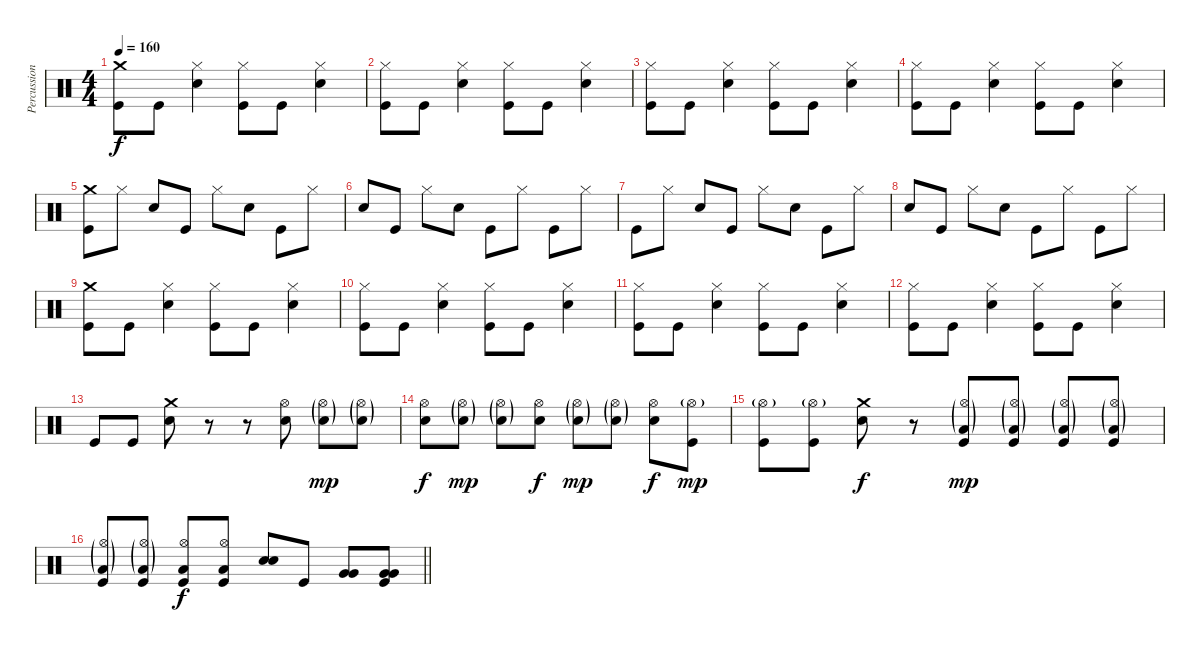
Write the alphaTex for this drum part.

\track ("Percussion" "Percussion") {instrument percussion}
\staff {score}
\articulation defaults
\ts (4 4)
\tempo 160
\clef neutral
\ks c
("Crash medium (hit)" "Kick (hit)").8{dy f} "Kick (hit)".8 ("Hi-Hat (closed)" "Snare (hit) 2").4 ("Hi-Hat (closed)" "Kick (hit)").8 "Kick (hit)".8 ("Hi-Hat (closed)" "Snare (hit) 2").4 |
("Hi-Hat (closed)" "Kick (hit)").8 "Kick (hit)".8 ("Hi-Hat (closed)" "Snare (hit) 2").4 ("Hi-Hat (closed)" "Kick (hit)").8 "Kick (hit)".8 ("Hi-Hat (closed)" "Snare (hit) 2").4 |
("Hi-Hat (closed)" "Kick (hit)").8 "Kick (hit)".8 ("Hi-Hat (closed)" "Snare (hit) 2").4 ("Hi-Hat (closed)" "Kick (hit)").8 "Kick (hit)".8 ("Hi-Hat (closed)" "Snare (hit) 2").4 |
("Hi-Hat (closed)" "Kick (hit)").8 "Kick (hit)".8 ("Hi-Hat (closed)" "Snare (hit) 2").4 ("Hi-Hat (closed)" "Kick (hit)").8 "Kick (hit)".8 ("Hi-Hat (closed)" "Snare (hit) 2").4 |
("Crash medium (hit)" "Kick (hit)").8 "Hi-Hat (closed)".8 "Snare (hit) 2".8 "Kick (hit)".8 "Hi-Hat (closed)".8 "Snare (hit) 2".8 "Kick (hit)".8 "Hi-Hat (closed)".8 |
"Snare (hit) 2".8 "Kick (hit)".8 "Hi-Hat (closed)".8 "Snare (hit) 2".8 "Kick (hit)".8 "Hi-Hat (closed)".8 "Kick (hit)".8 "Hi-Hat (closed)".8 |
"Kick (hit)".8 "Hi-Hat (closed)".8 "Snare (hit) 2".8 "Kick (hit)".8 "Hi-Hat (closed)".8 "Snare (hit) 2".8 "Kick (hit)".8 "Hi-Hat (closed)".8 |
"Snare (hit) 2".8 "Kick (hit)".8 "Hi-Hat (closed)".8 "Snare (hit) 2".8 "Kick (hit)".8 "Hi-Hat (closed)".8 "Kick (hit)".8 "Hi-Hat (closed)".8 |
("Crash medium (hit)" "Kick (hit)").8 "Kick (hit)".8 ("Hi-Hat (closed)" "Snare (hit) 2").4 ("Hi-Hat (closed)" "Kick (hit)").8 "Kick (hit)".8 ("Hi-Hat (closed)" "Snare (hit) 2").4 |
("Hi-Hat (closed)" "Kick (hit)").8 "Kick (hit)".8 ("Hi-Hat (closed)" "Snare (hit) 2").4 ("Hi-Hat (closed)" "Kick (hit)").8 "Kick (hit)".8 ("Hi-Hat (closed)" "Snare (hit) 2").4 |
("Hi-Hat (closed)" "Kick (hit)").8 "Kick (hit)".8 ("Hi-Hat (closed)" "Snare (hit) 2").4 ("Hi-Hat (closed)" "Kick (hit)").8 "Kick (hit)".8 ("Hi-Hat (closed)" "Snare (hit) 2").4 |
("Hi-Hat (closed)" "Kick (hit)").8 "Kick (hit)".8 ("Hi-Hat (closed)" "Snare (hit) 2").4 ("Hi-Hat (closed)" "Kick (hit)").8 "Kick (hit)".8 ("Hi-Hat (closed)" "Snare (hit) 2").4 |
"Kick (hit)".8 "Kick (hit)".8 ("Crash medium (hit)" "Snare (hit) 2").8 r.8 r.8 ("Hi-Hat (open)" "Snare (hit) 2").8 ("Hi-Hat (open)"{g} "Snare (hit) 2"{g}).8{dy mp} ("Hi-Hat (open)"{g} "Snare (hit) 2"{g}).8 |
("Hi-Hat (open)" "Snare (hit) 2").8{dy f} ("Hi-Hat (open)"{g} "Snare (hit) 2"{g}).8{dy mp} ("Hi-Hat (open)"{g} "Snare (hit) 2"{g}).8 ("Hi-Hat (open)" "Snare (hit) 2").8{dy f} ("Hi-Hat (open)"{g} "Snare (hit) 2"{g}).8{dy mp} ("Hi-Hat (open)"{g} "Snare (hit) 2"{g}).8 ("Hi-Hat (open)" "Snare (hit) 2").8{dy f} ("Hi-Hat (open)"{g} "Kick (hit)").8{dy mp} |
("Hi-Hat (open)"{g} "Kick (hit)").8 ("Hi-Hat (open)"{g} "Kick (hit)").8 ("Crash medium (hit)" "Snare (hit) 2").8{dy f} r.8 ("Hi-Hat (open)"{g} "Low Floor Tom (hit)"{g} "Kick (hit)").8{dy mp} ("Hi-Hat (open)"{g} "Low Floor Tom (hit)"{g} "Kick (hit)").8 ("Hi-Hat (open)"{g} "Low Floor Tom (hit)"{g} "Kick (hit)").8 ("Hi-Hat (open)"{g} "Low Floor Tom (hit)"{g} "Kick (hit)").8 |
\barLineRight lightlight
("Hi-Hat (open)"{g} "Low Floor Tom (hit)"{g} "Kick (hit)").8 ("Hi-Hat (open)"{g} "Low Floor Tom (hit)"{g} "Kick (hit)").8 ("Hi-Hat (open)" "Low Floor Tom (hit)" "Kick (hit)").8{dy f} ("Hi-Hat (open)" "Low Floor Tom (hit)" "Kick (hit)").8 ("Snare (hit) 2" "Snare (hit) 2").8{bd 60} "Kick (hit)".8 ("Very Low Tom (hit)" "Very Low Tom (hit)").8{bd 60} ("Very Low Tom (hit)" "Very Low Tom (hit)" "Kick (hit)").8
